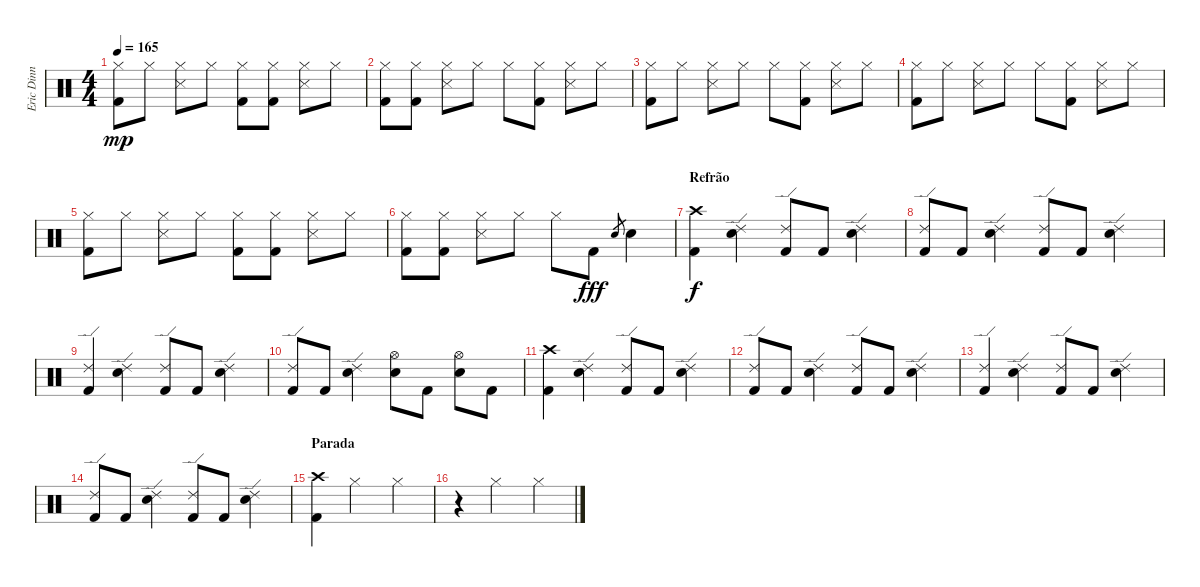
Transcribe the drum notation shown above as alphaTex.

\track ("Eric Dinn" "Eric Dinn") {instrument percussion}
\staff {score}
\articulation defaults
\ts (4 4)
\tempo 165
\clef neutral
\ks c
("Hi-Hat (closed)" "Kick (hit) 2").8{dy mp} "Hi-Hat (closed)".8 ("Hi-Hat (closed)" "Snare (side stick) 3").8 "Hi-Hat (closed)".8 ("Hi-Hat (closed)" "Kick (hit) 2").8 ("Hi-Hat (closed)" "Kick (hit) 2").8 ("Hi-Hat (closed)" "Snare (side stick) 3").8 "Hi-Hat (closed)".8 |
("Hi-Hat (closed)" "Kick (hit) 2").8 ("Hi-Hat (closed)" "Kick (hit) 2").8 ("Hi-Hat (closed)" "Snare (side stick) 3").8 "Hi-Hat (closed)".8 "Hi-Hat (closed)".8 ("Hi-Hat (closed)" "Kick (hit) 2").8 ("Hi-Hat (closed)" "Snare (side stick) 3").8 "Hi-Hat (closed)".8 |
("Hi-Hat (closed)" "Kick (hit) 2").8 "Hi-Hat (closed)".8 ("Hi-Hat (closed)" "Snare (side stick) 3").8 "Hi-Hat (closed)".8 "Hi-Hat (closed)".8 ("Hi-Hat (closed)" "Kick (hit) 2").8 ("Hi-Hat (closed)" "Snare (side stick) 3").8 "Hi-Hat (closed)".8 |
("Hi-Hat (closed)" "Kick (hit) 2").8 "Hi-Hat (closed)".8 ("Hi-Hat (closed)" "Snare (side stick) 3").8 "Hi-Hat (closed)".8 "Hi-Hat (closed)".8 ("Hi-Hat (closed)" "Kick (hit) 2").8 ("Hi-Hat (closed)" "Snare (side stick) 3").8 "Hi-Hat (closed)".8 |
("Hi-Hat (closed)" "Kick (hit) 2").8 "Hi-Hat (closed)".8 ("Hi-Hat (closed)" "Snare (side stick) 3").8 "Hi-Hat (closed)".8 ("Hi-Hat (closed)" "Kick (hit) 2").8 ("Hi-Hat (closed)" "Kick (hit) 2").8 ("Hi-Hat (closed)" "Snare (side stick) 3").8 "Hi-Hat (closed)".8 |
("Hi-Hat (closed)" "Kick (hit) 2").8 ("Hi-Hat (closed)" "Kick (hit) 2").8 ("Hi-Hat (closed)" "Snare (side stick) 3").8 "Hi-Hat (closed)".8 "Hi-Hat (closed)".8 "Kick (hit) 2".8{dy fff} "Snare (hit) 2".8{gr} "Snare (hit) 2".4 |
\section ("" "Refrão")
("Crash high (hit)" "Kick (hit) 2").4{dy f} ("Ride (edge) 2" "Snare (hit) 2").4 ("Ride (edge) 2" "Kick (hit) 2").8 "Kick (hit) 2".8 ("Ride (edge) 2" "Snare (hit) 2").4 |
("Ride (edge) 2" "Kick (hit) 2").8 "Kick (hit) 2".8 ("Ride (edge) 2" "Snare (hit) 2").4 ("Ride (edge) 2" "Kick (hit) 2").8 "Kick (hit) 2".8 ("Ride (edge) 2" "Snare (hit) 2").4 |
("Ride (edge) 2" "Kick (hit) 2").4 ("Ride (edge) 2" "Snare (hit) 2").4 ("Ride (edge) 2" "Kick (hit) 2").8 "Kick (hit) 2".8 ("Ride (edge) 2" "Snare (hit) 2").4 |
("Ride (edge) 2" "Kick (hit) 2").8 "Kick (hit) 2".8 ("Ride (edge) 2" "Snare (hit) 2").4 ("Hi-Hat (open)" "Snare (hit) 2").8 "Kick (hit) 2".8 ("Hi-Hat (open)" "Snare (hit) 2").8 "Kick (hit) 2".8 |
("Crash high (hit)" "Kick (hit) 2").4 ("Ride (edge) 2" "Snare (hit) 2").4 ("Ride (edge) 2" "Kick (hit) 2").8 "Kick (hit) 2".8 ("Ride (edge) 2" "Snare (hit) 2").4 |
("Ride (edge) 2" "Kick (hit) 2").8 "Kick (hit) 2".8 ("Ride (edge) 2" "Snare (hit) 2").4 ("Ride (edge) 2" "Kick (hit) 2").8 "Kick (hit) 2".8 ("Ride (edge) 2" "Snare (hit) 2").4 |
("Ride (edge) 2" "Kick (hit) 2").4 ("Ride (edge) 2" "Snare (hit) 2").4 ("Ride (edge) 2" "Kick (hit) 2").8 "Kick (hit) 2".8 ("Ride (edge) 2" "Snare (hit) 2").4 |
("Ride (edge) 2" "Kick (hit) 2").8 "Kick (hit) 2".8 ("Ride (edge) 2" "Snare (hit) 2").4 ("Ride (edge) 2" "Kick (hit) 2").8 "Kick (hit) 2".8 ("Ride (edge) 2" "Snare (hit) 2").4 |
\section ("" "Parada")
("Crash high (hit)" "Kick (hit) 2").4 "Hi-Hat (closed)".2 "Hi-Hat (closed)".4 |
r.4 "Hi-Hat (closed)".2 "Hi-Hat (closed)".4
